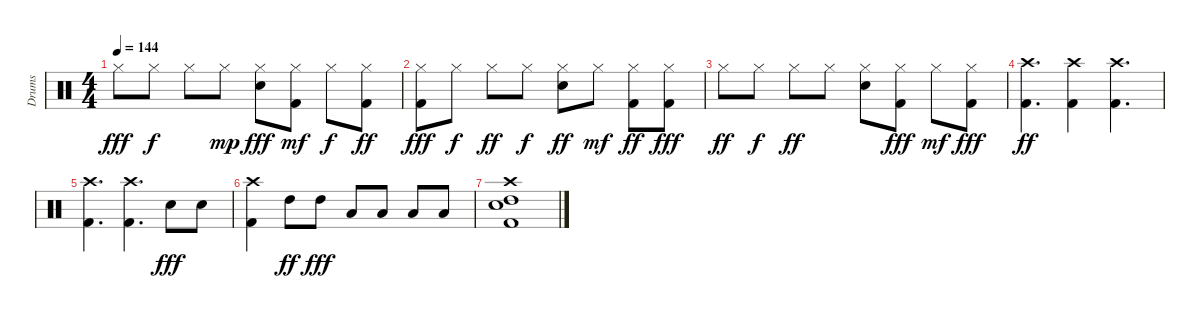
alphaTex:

\track ("Drums" "Drums") {instrument percussion}
\staff {score}
\articulation defaults
\ts (4 4)
\tempo 144
\clef neutral
\ks c "Hi-Hat (closed)".8{dy fff} "Hi-Hat (closed)".8{dy f} "Hi-Hat (closed)".8 "Hi-Hat (closed)".8{dy mp}
("Snare (hit) 2" "Hi-Hat (closed)").8{dy fff} ("Kick (hit) 2" "Hi-Hat (closed)").8{dy mf} "Hi-Hat (closed)".8{dy f} ("Kick (hit) 2" "Hi-Hat (closed)").8{dy ff} |
("Kick (hit) 2" "Hi-Hat (closed)").8{dy fff} "Hi-Hat (closed)".8{dy f} "Hi-Hat (closed)".8{dy ff} "Hi-Hat (closed)".8{dy f} ("Snare (hit) 2" "Hi-Hat (closed)").8{dy ff} "Hi-Hat (closed)".8{dy mf} ("Kick (hit) 2" "Hi-Hat (closed)").8{dy ff} ("Kick (hit) 2" "Hi-Hat (closed)").8{dy fff} |
"Hi-Hat (closed)".8{dy ff} "Hi-Hat (closed)".8{dy f} "Hi-Hat (closed)".8{dy ff} "Hi-Hat (closed)".8 ("Snare (hit) 2" "Hi-Hat (closed)").8 ("Kick (hit) 2" "Hi-Hat (closed)").8{dy fff} "Hi-Hat (closed)".8{dy mf} ("Kick (hit) 2" "Hi-Hat (closed)").8{dy fff} |
("Kick (hit) 2" "Crash high (hit)").4{d dy ff} ("Kick (hit) 2" "Crash high (hit)").4 ("Kick (hit) 2" "Crash high (hit)").4{d} |
("Kick (hit) 2" "Crash high (hit)").4{d volume 0} ("Kick (hit) 2" "Crash high (hit)").4{d} "Snare (hit) 2".8{dy fff} "Snare (hit) 2".8 |
("Crash high (hit)" "Kick (hit) 2").4 "High Tom (hit)".8{dy ff} "High Tom (hit)".8{dy fff} "Low Tom (hit)".8 "Low Tom (hit)".8 "Low Floor Tom (hit)".8 "Low Floor Tom (hit)".8 |
("Kick (hit) 2" "Snare (hit) 2" "Crash high (hit)" "High Tom (hit)").1
